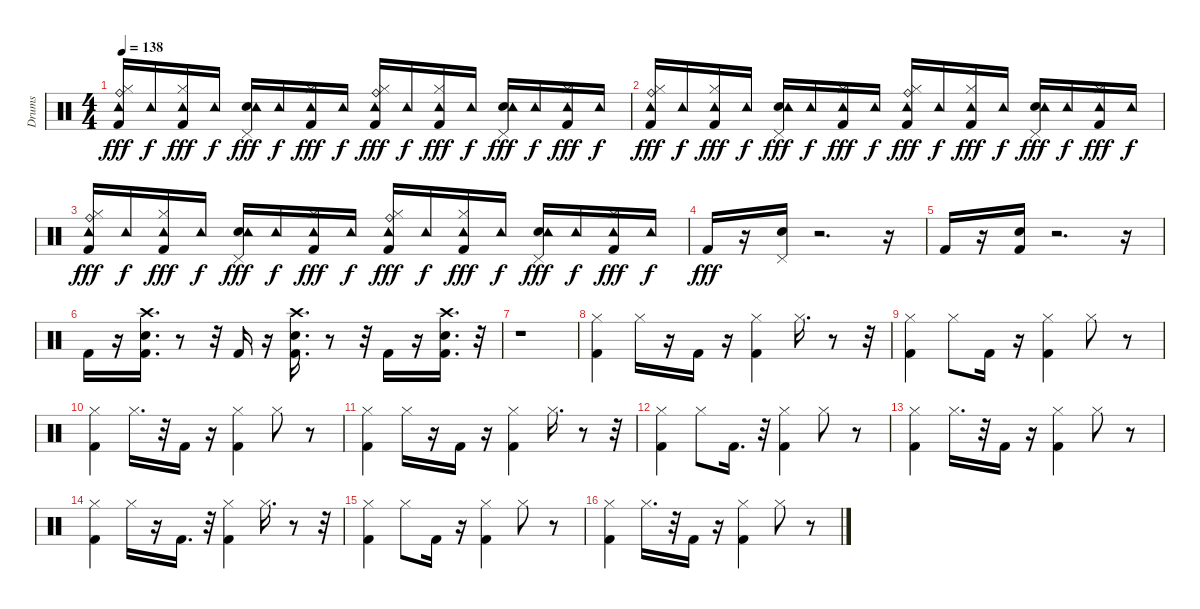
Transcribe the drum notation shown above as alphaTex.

\track ("Drums" "Drums") {instrument percussion}
\staff {score}
\articulation defaults
\ts (4 4)
\tempo 138
\clef neutral
\ks c
("Kick (hit) 2" "Hi-Hat (closed)" "Ride (bell)" "Tambourine (hit)").16{dy fff} "Tambourine (hit)".16{dy f} ("Kick (hit) 2" "Hi-Hat (closed)" "Tambourine (hit)").16{dy fff} "Tambourine (hit)".16{dy f} ("Snare (hit) 2" "Pedal Hi-Hat (hit)" "Tambourine (hit)").16{dy fff} "Tambourine (hit)".16{dy f} ("Kick (hit) 2" "Hi-Hat (closed)" "Tambourine (hit)").16{dy fff} "Tambourine (hit)".16{dy f} ("Kick (hit) 2" "Hi-Hat (closed)" "Ride (bell)" "Tambourine (hit)").16{dy fff} "Tambourine (hit)".16{dy f} ("Kick (hit) 2" "Hi-Hat (closed)" "Tambourine (hit)").16{dy fff} "Tambourine (hit)".16{dy f} ("Snare (hit) 2" "Pedal Hi-Hat (hit)" "Tambourine (hit)").16{dy fff} "Tambourine (hit)".16{dy f} ("Kick (hit) 2" "Hi-Hat (closed)" "Tambourine (hit)").16{dy fff} "Tambourine (hit)".16{dy f} |
("Kick (hit) 2" "Hi-Hat (closed)" "Ride (bell)" "Tambourine (hit)").16{dy fff} "Tambourine (hit)".16{dy f} ("Kick (hit) 2" "Hi-Hat (closed)" "Tambourine (hit)").16{dy fff} "Tambourine (hit)".16{dy f} ("Snare (hit) 2" "Pedal Hi-Hat (hit)" "Tambourine (hit)").16{dy fff} "Tambourine (hit)".16{dy f} ("Kick (hit) 2" "Hi-Hat (closed)" "Tambourine (hit)").16{dy fff} "Tambourine (hit)".16{dy f} ("Kick (hit) 2" "Hi-Hat (closed)" "Ride (bell)" "Tambourine (hit)").16{dy fff} "Tambourine (hit)".16{dy f} ("Kick (hit) 2" "Hi-Hat (closed)" "Tambourine (hit)").16{dy fff} "Tambourine (hit)".16{dy f} ("Snare (hit) 2" "Pedal Hi-Hat (hit)" "Tambourine (hit)").16{dy fff} "Tambourine (hit)".16{dy f} ("Kick (hit) 2" "Hi-Hat (closed)" "Tambourine (hit)").16{dy fff} "Tambourine (hit)".16{dy f} |
("Kick (hit) 2" "Hi-Hat (closed)" "Ride (bell)" "Tambourine (hit)").16{dy fff} "Tambourine (hit)".16{dy f} ("Kick (hit) 2" "Hi-Hat (closed)" "Tambourine (hit)").16{dy fff} "Tambourine (hit)".16{dy f} ("Snare (hit) 2" "Pedal Hi-Hat (hit)" "Tambourine (hit)").16{dy fff} "Tambourine (hit)".16{dy f} ("Kick (hit) 2" "Hi-Hat (closed)" "Tambourine (hit)").16{dy fff} "Tambourine (hit)".16{dy f} ("Kick (hit) 2" "Hi-Hat (closed)" "Ride (bell)" "Tambourine (hit)").16{dy fff} "Tambourine (hit)".16{dy f} ("Kick (hit) 2" "Hi-Hat (closed)" "Tambourine (hit)").16{dy fff} "Tambourine (hit)".16{dy f} ("Snare (hit) 2" "Pedal Hi-Hat (hit)" "Tambourine (hit)").16{dy fff} "Tambourine (hit)".16{dy f} ("Kick (hit) 2" "Hi-Hat (closed)" "Tambourine (hit)").16{dy fff} "Tambourine (hit)".16{dy f} |
"Kick (hit) 2".16{dy fff} r.16 ("Snare (hit) 2" "Pedal Hi-Hat (hit)").16 r.2{d} r.16 |
"Kick (hit) 2".16 r.16 ("Kick (hit) 2" "Snare (hit) 2").16 r.2{d} r.16 |
"Kick (hit) 2".16 r.16 ("Kick (hit) 2" "Snare (hit) 2" "Crash high (hit)").16{d} r.8 r.32 "Kick (hit) 2".16 r.16 ("Kick (hit) 2" "Snare (hit) 2" "Crash high (hit)").16{d} r.8 r.32 "Kick (hit) 2".16 r.16 ("Kick (hit) 2" "Snare (hit) 2" "Crash high (hit)").16{d} r.32 |
r.1 |
("Kick (hit) 2" "Hi-Hat (closed)").4 "Hi-Hat (closed)".16 r.16 "Kick (hit) 2".16 r.16 ("Kick (hit) 2" "Hi-Hat (closed)").4 "Hi-Hat (closed)".16{d} r.8 r.32 |
("Kick (hit) 2" "Hi-Hat (closed)").4 "Hi-Hat (closed)".8 "Kick (hit) 2".16 r.16 ("Kick (hit) 2" "Hi-Hat (closed)").4 "Hi-Hat (closed)".8 r.8 |
("Kick (hit) 2" "Hi-Hat (closed)").4 "Hi-Hat (closed)".16{d} r.32 "Kick (hit) 2".16 r.16 ("Kick (hit) 2" "Hi-Hat (closed)").4 "Hi-Hat (closed)".8 r.8 |
("Kick (hit) 2" "Hi-Hat (closed)").4 "Hi-Hat (closed)".16 r.16 "Kick (hit) 2".16 r.16 ("Kick (hit) 2" "Hi-Hat (closed)").4 "Hi-Hat (closed)".16{d} r.8 r.32 |
("Kick (hit) 2" "Hi-Hat (closed)").4 "Hi-Hat (closed)".8 "Kick (hit) 2".16{d} r.32 ("Kick (hit) 2" "Hi-Hat (closed)").4 "Hi-Hat (closed)".8 r.8 |
("Kick (hit) 2" "Hi-Hat (closed)").4 "Hi-Hat (closed)".16{d} r.32 "Kick (hit) 2".16 r.16 ("Kick (hit) 2" "Hi-Hat (closed)").4 "Hi-Hat (closed)".8 r.8 |
("Kick (hit) 2" "Hi-Hat (closed)").4 "Hi-Hat (closed)".16 r.16 "Kick (hit) 2".16{d} r.32 ("Kick (hit) 2" "Hi-Hat (closed)").4 "Hi-Hat (closed)".16{d} r.8 r.32 |
("Kick (hit) 2" "Hi-Hat (closed)").4 "Hi-Hat (closed)".8 "Kick (hit) 2".16 r.16 ("Kick (hit) 2" "Hi-Hat (closed)").4 "Hi-Hat (closed)".8 r.8 |
("Kick (hit) 2" "Hi-Hat (closed)").4 "Hi-Hat (closed)".16{d} r.32 "Kick (hit) 2".16 r.16 ("Kick (hit) 2" "Hi-Hat (closed)").4 "Hi-Hat (closed)".8 r.8
